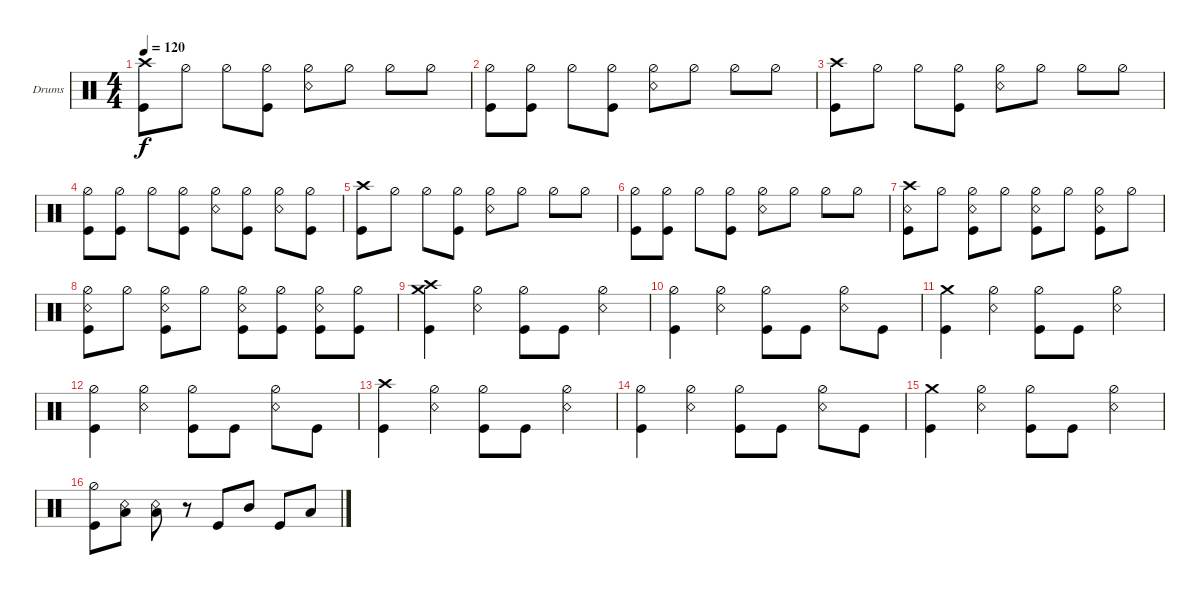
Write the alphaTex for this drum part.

\defaultSystemsLayout 4
\bracketExtendMode groupsimilarinstruments
\firstSystemTrackNameOrientation horizontal
\otherSystemsTrackNameOrientation horizontal
\track ("Drumkit" "Drums") {instrument percussion}
\staff {score}
\articulation defaults
\ts (4 4)
\tempo 120
\clef neutral
\ks c
("Kick (hit)" "Crash high (hit)").8{dy f} "Hi-Hat (half)".8 "Hi-Hat (half)".8 ("Kick (hit)" "Hi-Hat (half)").8 ("Snare (rim shot)" "Hi-Hat (half)").8 "Hi-Hat (half)".8 "Hi-Hat (half)".8 "Hi-Hat (half)".8 |
("Kick (hit)" "Hi-Hat (half)").8 ("Hi-Hat (half)" "Kick (hit)").8 "Hi-Hat (half)".8 ("Kick (hit)" "Hi-Hat (half)").8 ("Snare (rim shot)" "Hi-Hat (half)").8 "Hi-Hat (half)".8 "Hi-Hat (half)".8 "Hi-Hat (half)".8 |
("Kick (hit)" "Crash high (hit)").8 "Hi-Hat (half)".8 "Hi-Hat (half)".8 ("Kick (hit)" "Hi-Hat (half)").8 ("Snare (rim shot)" "Hi-Hat (half)").8 "Hi-Hat (half)".8 "Hi-Hat (half)".8 "Hi-Hat (half)".8 |
("Kick (hit)" "Hi-Hat (half)").8 ("Hi-Hat (half)" "Kick (hit)").8 "Hi-Hat (half)".8 ("Kick (hit)" "Hi-Hat (half)").8 ("Snare (rim shot)" "Hi-Hat (half)").8 ("Hi-Hat (half)" "Kick (hit)").8 ("Hi-Hat (half)" "Snare (rim shot)").8 ("Hi-Hat (half)" "Kick (hit)").8 |
("Kick (hit)" "Crash high (hit)").8 "Hi-Hat (half)".8 "Hi-Hat (half)".8 ("Kick (hit)" "Hi-Hat (half)").8 ("Snare (rim shot)" "Hi-Hat (half)").8 "Hi-Hat (half)".8 "Hi-Hat (half)".8 "Hi-Hat (half)".8 |
("Kick (hit)" "Hi-Hat (half)").8 ("Hi-Hat (half)" "Kick (hit)").8 "Hi-Hat (half)".8 ("Kick (hit)" "Hi-Hat (half)").8 ("Snare (rim shot)" "Hi-Hat (half)").8 "Hi-Hat (half)".8 "Hi-Hat (half)".8 "Hi-Hat (half)".8 |
("Kick (hit)" "Crash high (hit)" "Snare (rim shot)").8 "Hi-Hat (half)".8 ("Hi-Hat (half)" "Snare (rim shot)" "Kick (hit)").8 "Hi-Hat (half)".8 ("Snare (rim shot)" "Hi-Hat (half)" "Kick (hit)").8 "Hi-Hat (half)".8 ("Hi-Hat (half)" "Snare (rim shot)" "Kick (hit)").8 "Hi-Hat (half)".8 |
("Kick (hit)" "Hi-Hat (half)" "Snare (rim shot)").8 "Hi-Hat (half)".8 ("Hi-Hat (half)" "Snare (rim shot)" "Kick (hit)").8 "Hi-Hat (half)".8 ("Snare (rim shot)" "Hi-Hat (half)" "Kick (hit)").8 ("Hi-Hat (half)" "Kick (hit)").8 ("Hi-Hat (half)" "Snare (rim shot)" "Kick (hit)").8 ("Hi-Hat (half)" "Kick (hit)").8 |
("Kick (hit)" "Crash high (hit)" "Crash medium (hit)").4 ("Snare (rim shot)" "Hi-Hat (half)").4 ("Kick (hit)" "Hi-Hat (half)").8 "Kick (hit)".8 ("Snare (rim shot)" "Hi-Hat (half)").4 |
("Kick (hit)" "Hi-Hat (half)").4 ("Snare (rim shot)" "Hi-Hat (half)").4 ("Kick (hit)" "Hi-Hat (half)").8 "Kick (hit)".8 ("Snare (rim shot)" "Hi-Hat (half)").8 "Kick (hit)".8 |
("Kick (hit)" "Crash medium (hit)").4 ("Snare (rim shot)" "Hi-Hat (half)").4 ("Kick (hit)" "Hi-Hat (half)").8 "Kick (hit)".8 ("Snare (rim shot)" "Hi-Hat (half)").4 |
("Kick (hit)" "Hi-Hat (half)").4 ("Snare (rim shot)" "Hi-Hat (half)").4 ("Kick (hit)" "Hi-Hat (half)").8 "Kick (hit)".8 ("Snare (rim shot)" "Hi-Hat (half)").8 "Kick (hit)".8 |
("Kick (hit)" "Crash high (hit)").4 ("Snare (rim shot)" "Hi-Hat (half)").4 ("Kick (hit)" "Hi-Hat (half)").8 "Kick (hit)".8 ("Snare (rim shot)" "Hi-Hat (half)").4 |
("Kick (hit)" "Hi-Hat (half)").4 ("Snare (rim shot)" "Hi-Hat (half)").4 ("Kick (hit)" "Hi-Hat (half)").8 "Kick (hit)".8 ("Snare (rim shot)" "Hi-Hat (half)").8 "Kick (hit)".8 |
("Kick (hit)" "Crash medium (hit)").4 ("Snare (rim shot)" "Hi-Hat (half)").4 ("Kick (hit)" "Hi-Hat (half)").8 "Kick (hit)".8 ("Snare (rim shot)" "Hi-Hat (half)").4 |
("Kick (hit)" "Hi-Hat (half)").8 ("Snare (rim shot)" "Low Tom (hit)").8 ("Snare (rim shot)" "Low Tom (hit)").8 r.8 "Kick (hit)".8 "Mid Tom (hit)".8 "Kick (hit)".8 "Low Tom (hit)".8
